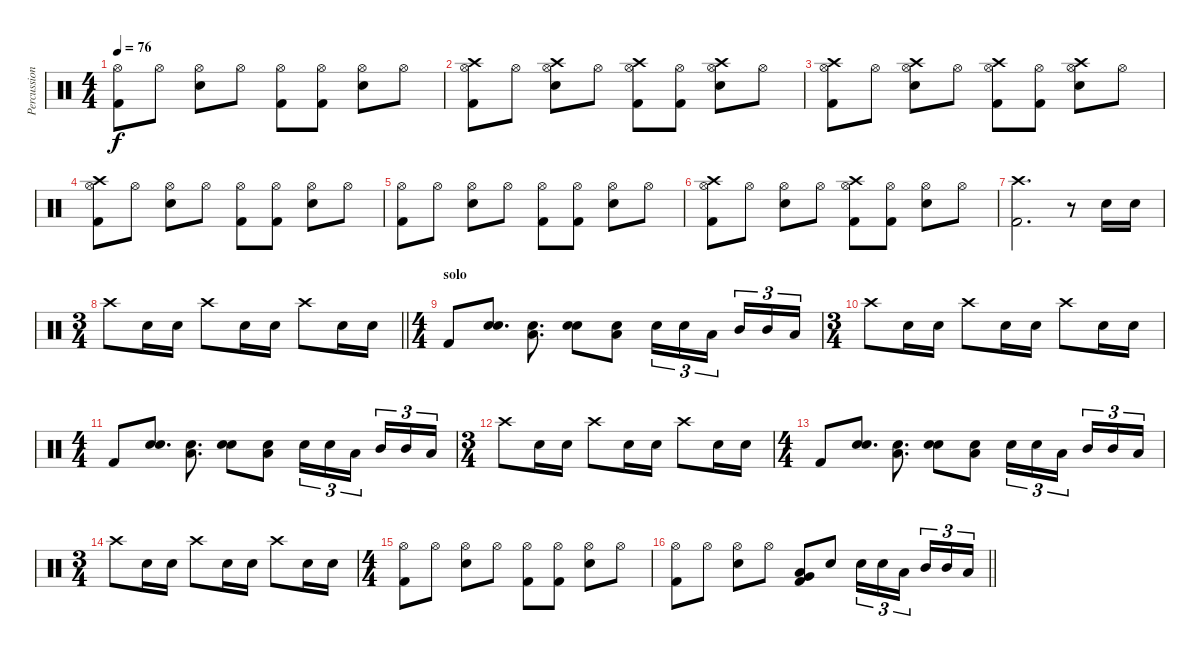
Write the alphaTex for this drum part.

\track ("Percussioni" "Percussion") {instrument percussion}
\staff {score}
\articulation defaults
\ts (4 4)
\tempo 76
\clef neutral
\ks c
("Hi-Hat (open)" "Kick (hit) 2").8{dy f} "Hi-Hat (open)".8 ("Hi-Hat (open)" "Electric Snare (hit)").8 "Hi-Hat (open)".8 ("Hi-Hat (open)" "Kick (hit) 2").8 ("Hi-Hat (open)" "Kick (hit) 2").8 ("Hi-Hat (open)" "Electric Snare (hit)").8 "Hi-Hat (open)".8 |
("Hi-Hat (open)" "Kick (hit) 2" "Crash high (hit)").8 "Hi-Hat (open)".8 ("Hi-Hat (open)" "Electric Snare (hit)" "Crash high (hit)").8 "Hi-Hat (open)".8 ("Hi-Hat (open)" "Kick (hit) 2" "Crash high (hit)").8 ("Hi-Hat (open)" "Kick (hit) 2").8 ("Hi-Hat (open)" "Electric Snare (hit)" "Crash high (hit)").8 "Hi-Hat (open)".8 |
("Hi-Hat (open)" "Kick (hit) 2" "Crash high (hit)").8 "Hi-Hat (open)".8 ("Hi-Hat (open)" "Electric Snare (hit)" "Crash high (hit)").8 "Hi-Hat (open)".8 ("Hi-Hat (open)" "Kick (hit) 2" "Crash high (hit)").8 ("Hi-Hat (open)" "Kick (hit) 2").8 ("Hi-Hat (open)" "Electric Snare (hit)" "Crash high (hit)").8 "Hi-Hat (open)".8 |
("Hi-Hat (open)" "Kick (hit) 2" "Crash high (hit)").8 "Hi-Hat (open)".8 ("Hi-Hat (open)" "Electric Snare (hit)").8 "Hi-Hat (open)".8 ("Hi-Hat (open)" "Kick (hit) 2").8 ("Hi-Hat (open)" "Kick (hit) 2").8 ("Hi-Hat (open)" "Electric Snare (hit)").8 "Hi-Hat (open)".8 |
("Hi-Hat (open)" "Kick (hit) 2").8 "Hi-Hat (open)".8 ("Hi-Hat (open)" "Electric Snare (hit)").8 "Hi-Hat (open)".8 ("Hi-Hat (open)" "Kick (hit) 2").8 ("Hi-Hat (open)" "Kick (hit) 2").8 ("Hi-Hat (open)" "Electric Snare (hit)").8 "Hi-Hat (open)".8 |
("Hi-Hat (open)" "Kick (hit) 2" "Crash high (hit)").8 "Hi-Hat (open)".8 ("Hi-Hat (open)" "Electric Snare (hit)").8 "Hi-Hat (open)".8 ("Hi-Hat (open)" "Kick (hit) 2" "Crash high (hit)").8 ("Hi-Hat (open)" "Kick (hit) 2").8 ("Hi-Hat (open)" "Electric Snare (hit)").8 "Hi-Hat (open)".8 |
("Crash high (hit)" "Kick (hit) 2").2{d} r.8 "Electric Snare (hit)".16 "Electric Snare (hit)".16 |
\ts (3 4)
\barLineRight lightlight "Crash high (hit)".8 "Electric Snare (hit)".16 "Electric Snare (hit)".16 "Crash high (hit)".8 "Electric Snare (hit)".16 "Electric Snare (hit)".16 "Crash high (hit)".8 "Electric Snare (hit)".16 "Electric Snare (hit)".16
|
\ts (4 4)
\section ("" "solo")
"Kick (hit) 2".8 ("Snare (hit) 2" "Electric Snare (hit)").8{d} ("Low Tom (hit)" "Electric Snare (hit)").8{d} ("Snare (hit) 2" "Electric Snare (hit)").8 ("Low Tom (hit)" "Electric Snare (hit)").8 "Electric Snare (hit)".16{tu (3 2)} "Electric Snare (hit)".16{tu (3 2)} "Low Tom (hit)".16{tu (3 2) beam splitsecondary} "Mid Tom (hit)".16{tu (3 2)} "Mid Tom (hit)".16{tu (3 2)} "Low Floor Tom (hit)".16{tu (3 2)} |
\ts (3 4)
"Crash high (hit)".8 "Electric Snare (hit)".16 "Electric Snare (hit)".16 "Crash high (hit)".8 "Electric Snare (hit)".16 "Electric Snare (hit)".16 "Crash high (hit)".8 "Electric Snare (hit)".16 "Electric Snare (hit)".16 |
\ts (4 4)
"Kick (hit) 2".8 ("Snare (hit) 2" "Electric Snare (hit)").8{d} ("Low Tom (hit)" "Electric Snare (hit)").8{d} ("Snare (hit) 2" "Electric Snare (hit)").8 ("Low Tom (hit)" "Electric Snare (hit)").8 "Electric Snare (hit)".16{tu (3 2)} "Electric Snare (hit)".16{tu (3 2)} "Low Tom (hit)".16{tu (3 2) beam splitsecondary} "Mid Tom (hit)".16{tu (3 2)} "Mid Tom (hit)".16{tu (3 2)} "Low Floor Tom (hit)".16{tu (3 2)} |
\ts (3 4)
"Crash high (hit)".8 "Electric Snare (hit)".16 "Electric Snare (hit)".16 "Crash high (hit)".8 "Electric Snare (hit)".16 "Electric Snare (hit)".16 "Crash high (hit)".8 "Electric Snare (hit)".16 "Electric Snare (hit)".16 |
\ts (4 4)
"Kick (hit) 2".8 ("Snare (hit) 2" "Electric Snare (hit)").8{d} ("Low Tom (hit)" "Electric Snare (hit)").8{d} ("Snare (hit) 2" "Electric Snare (hit)").8 ("Low Tom (hit)" "Electric Snare (hit)").8 "Electric Snare (hit)".16{tu (3 2)} "Electric Snare (hit)".16{tu (3 2)} "Low Tom (hit)".16{tu (3 2) beam splitsecondary} "Mid Tom (hit)".16{tu (3 2)} "Mid Tom (hit)".16{tu (3 2)} "Low Floor Tom (hit)".16{tu (3 2)} |
\ts (3 4)
"Crash high (hit)".8 "Electric Snare (hit)".16 "Electric Snare (hit)".16 "Crash high (hit)".8 "Electric Snare (hit)".16 "Electric Snare (hit)".16 "Crash high (hit)".8 "Electric Snare (hit)".16 "Electric Snare (hit)".16 |
\ts (4 4)
("Hi-Hat (open)" "Kick (hit) 2").8 "Hi-Hat (open)".8 ("Hi-Hat (open)" "Electric Snare (hit)").8 "Hi-Hat (open)".8 ("Hi-Hat (open)" "Kick (hit) 2").8 ("Hi-Hat (open)" "Kick (hit) 2").8 ("Hi-Hat (open)" "Electric Snare (hit)").8 "Hi-Hat (open)".8 |
\barLineRight lightlight
("Hi-Hat (open)" "Kick (hit) 2").8 "Hi-Hat (open)".8 ("Hi-Hat (open)" "Electric Snare (hit)").8 "Hi-Hat (open)".8 ("Kick (hit) 2" "Low Floor Tom (hit)" "Very Low Tom (hit)").8 "Electric Snare (hit)".8 "Electric Snare (hit)".16{tu (3 2)} "Electric Snare (hit)".16{tu (3 2)} "Low Tom (hit)".16{tu (3 2) beam splitsecondary} "Mid Tom (hit)".16{tu (3 2)} "Mid Tom (hit)".16{tu (3 2)} "Low Floor Tom (hit)".16{tu (3 2)}
